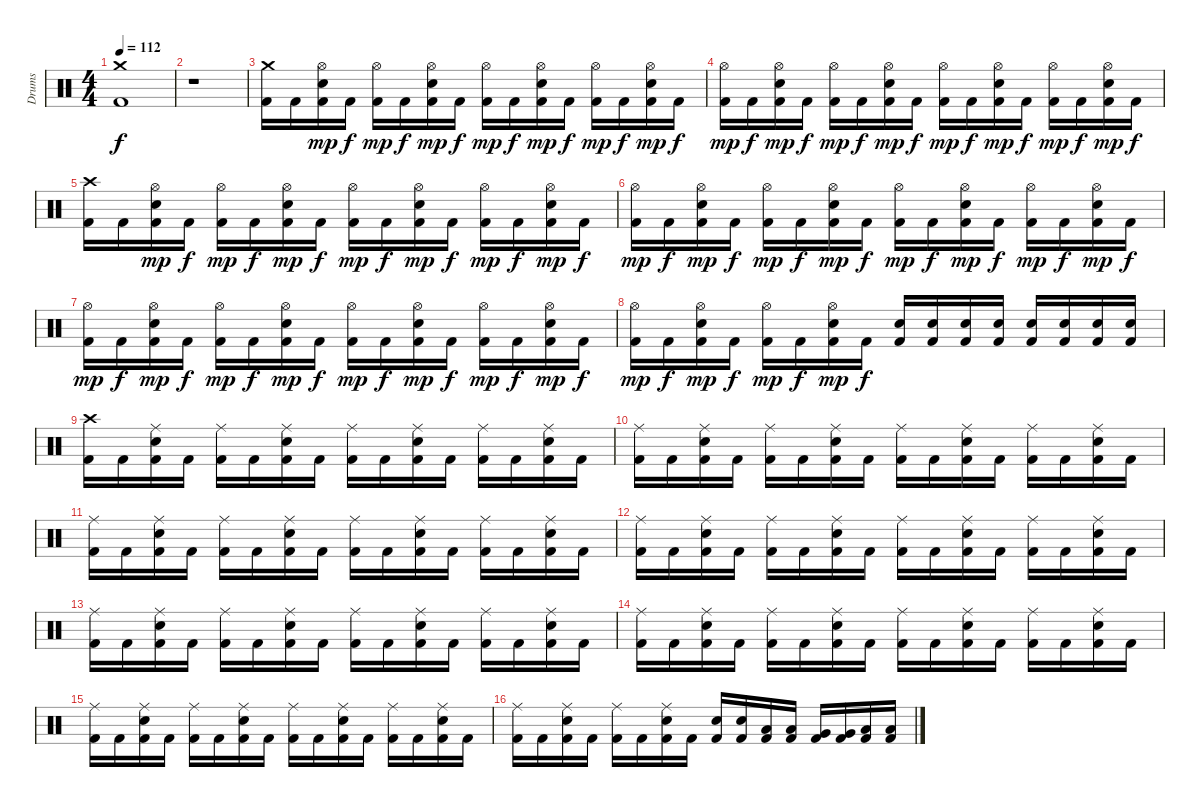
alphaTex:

\track ("Drums" "Drums") {instrument percussion}
\staff {score}
\articulation defaults
\ts (4 4)
\tempo 112
\clef neutral
\ks c
("Crash medium (hit)" "Kick (hit) 2").1{dy f} |
r.1 |
("Crash medium (hit)" "Kick (hit) 2").16 "Kick (hit) 2".16 ("Hi-Hat (open)" "Electric Snare (hit)" "Kick (hit) 2").16{dy mp} "Kick (hit) 2".16{dy f} ("Hi-Hat (open)" "Kick (hit) 2").16{dy mp} "Kick (hit) 2".16{dy f} ("Hi-Hat (open)" "Electric Snare (hit)" "Kick (hit) 2").16{dy mp} "Kick (hit) 2".16{dy f} ("Hi-Hat (open)" "Kick (hit) 2").16{dy mp} "Kick (hit) 2".16{dy f} ("Hi-Hat (open)" "Electric Snare (hit)" "Kick (hit) 2").16{dy mp} "Kick (hit) 2".16{dy f} ("Hi-Hat (open)" "Kick (hit) 2").16{dy mp} "Kick (hit) 2".16{dy f} ("Hi-Hat (open)" "Electric Snare (hit)" "Kick (hit) 2").16{dy mp} "Kick (hit) 2".16{dy f} |
("Hi-Hat (open)" "Kick (hit) 2").16{dy mp} "Kick (hit) 2".16{dy f} ("Hi-Hat (open)" "Electric Snare (hit)" "Kick (hit) 2").16{dy mp} "Kick (hit) 2".16{dy f} ("Hi-Hat (open)" "Kick (hit) 2").16{dy mp} "Kick (hit) 2".16{dy f} ("Hi-Hat (open)" "Electric Snare (hit)" "Kick (hit) 2").16{dy mp} "Kick (hit) 2".16{dy f} ("Hi-Hat (open)" "Kick (hit) 2").16{dy mp} "Kick (hit) 2".16{dy f} ("Hi-Hat (open)" "Electric Snare (hit)" "Kick (hit) 2").16{dy mp} "Kick (hit) 2".16{dy f} ("Hi-Hat (open)" "Kick (hit) 2").16{dy mp} "Kick (hit) 2".16{dy f} ("Hi-Hat (open)" "Electric Snare (hit)" "Kick (hit) 2").16{dy mp} "Kick (hit) 2".16{dy f} |
("Crash high (hit)" "Kick (hit) 2").16 "Kick (hit) 2".16 ("Hi-Hat (open)" "Electric Snare (hit)" "Kick (hit) 2").16{dy mp} "Kick (hit) 2".16{dy f} ("Hi-Hat (open)" "Kick (hit) 2").16{dy mp} "Kick (hit) 2".16{dy f} ("Hi-Hat (open)" "Electric Snare (hit)" "Kick (hit) 2").16{dy mp} "Kick (hit) 2".16{dy f} ("Hi-Hat (open)" "Kick (hit) 2").16{dy mp} "Kick (hit) 2".16{dy f} ("Hi-Hat (open)" "Electric Snare (hit)" "Kick (hit) 2").16{dy mp} "Kick (hit) 2".16{dy f} ("Hi-Hat (open)" "Kick (hit) 2").16{dy mp} "Kick (hit) 2".16{dy f} ("Hi-Hat (open)" "Electric Snare (hit)" "Kick (hit) 2").16{dy mp} "Kick (hit) 2".16{dy f} |
("Hi-Hat (open)" "Kick (hit) 2").16{dy mp} "Kick (hit) 2".16{dy f} ("Hi-Hat (open)" "Electric Snare (hit)" "Kick (hit) 2").16{dy mp} "Kick (hit) 2".16{dy f} ("Hi-Hat (open)" "Kick (hit) 2").16{dy mp} "Kick (hit) 2".16{dy f} ("Hi-Hat (open)" "Electric Snare (hit)" "Kick (hit) 2").16{dy mp} "Kick (hit) 2".16{dy f} ("Hi-Hat (open)" "Kick (hit) 2").16{dy mp} "Kick (hit) 2".16{dy f} ("Hi-Hat (open)" "Electric Snare (hit)" "Kick (hit) 2").16{dy mp} "Kick (hit) 2".16{dy f} ("Hi-Hat (open)" "Kick (hit) 2").16{dy mp} "Kick (hit) 2".16{dy f} ("Hi-Hat (open)" "Electric Snare (hit)" "Kick (hit) 2").16{dy mp} "Kick (hit) 2".16{dy f} |
("Hi-Hat (open)" "Kick (hit) 2").16{dy mp} "Kick (hit) 2".16{dy f} ("Hi-Hat (open)" "Electric Snare (hit)" "Kick (hit) 2").16{dy mp} "Kick (hit) 2".16{dy f} ("Hi-Hat (open)" "Kick (hit) 2").16{dy mp} "Kick (hit) 2".16{dy f} ("Hi-Hat (open)" "Electric Snare (hit)" "Kick (hit) 2").16{dy mp} "Kick (hit) 2".16{dy f} ("Hi-Hat (open)" "Kick (hit) 2").16{dy mp} "Kick (hit) 2".16{dy f} ("Hi-Hat (open)" "Electric Snare (hit)" "Kick (hit) 2").16{dy mp} "Kick (hit) 2".16{dy f} ("Hi-Hat (open)" "Kick (hit) 2").16{dy mp} "Kick (hit) 2".16{dy f} ("Hi-Hat (open)" "Electric Snare (hit)" "Kick (hit) 2").16{dy mp} "Kick (hit) 2".16{dy f} |
("Hi-Hat (open)" "Kick (hit) 2").16{dy mp} "Kick (hit) 2".16{dy f} ("Hi-Hat (open)" "Electric Snare (hit)" "Kick (hit) 2").16{dy mp} "Kick (hit) 2".16{dy f} ("Hi-Hat (open)" "Kick (hit) 2").16{dy mp} "Kick (hit) 2".16{dy f} ("Hi-Hat (open)" "Electric Snare (hit)" "Kick (hit) 2").16{dy mp} "Kick (hit) 2".16{dy f} ("Electric Snare (hit)" "Kick (hit) 2").16 ("Electric Snare (hit)" "Kick (hit) 2").16 ("Electric Snare (hit)" "Kick (hit) 2").16 ("Electric Snare (hit)" "Kick (hit) 2").16 ("Electric Snare (hit)" "Kick (hit) 2").16 ("Electric Snare (hit)" "Kick (hit) 2").16 ("Electric Snare (hit)" "Kick (hit) 2").16 ("Electric Snare (hit)" "Kick (hit) 2").16 |
("Crash high (hit)" "Kick (hit) 2").16 "Kick (hit) 2".16 ("Ride (middle)" "Electric Snare (hit)" "Kick (hit) 2").16 "Kick (hit) 2".16 ("Ride (middle)" "Kick (hit) 2").16 "Kick (hit) 2".16 ("Ride (middle)" "Electric Snare (hit)" "Kick (hit) 2").16 "Kick (hit) 2".16 ("Ride (middle)" "Kick (hit) 2").16 "Kick (hit) 2".16 ("Ride (middle)" "Electric Snare (hit)" "Kick (hit) 2").16 "Kick (hit) 2".16 ("Ride (middle)" "Kick (hit) 2").16 "Kick (hit) 2".16 ("Ride (middle)" "Electric Snare (hit)" "Kick (hit) 2").16 "Kick (hit) 2".16 |
("Ride (middle)" "Kick (hit) 2").16 "Kick (hit) 2".16 ("Ride (middle)" "Electric Snare (hit)" "Kick (hit) 2").16 "Kick (hit) 2".16 ("Ride (middle)" "Kick (hit) 2").16 "Kick (hit) 2".16 ("Ride (middle)" "Electric Snare (hit)" "Kick (hit) 2").16 "Kick (hit) 2".16 ("Ride (middle)" "Kick (hit) 2").16 "Kick (hit) 2".16 ("Ride (middle)" "Electric Snare (hit)" "Kick (hit) 2").16 "Kick (hit) 2".16 ("Ride (middle)" "Kick (hit) 2").16 "Kick (hit) 2".16 ("Ride (middle)" "Electric Snare (hit)" "Kick (hit) 2").16 "Kick (hit) 2".16 |
("Ride (middle)" "Kick (hit) 2").16 "Kick (hit) 2".16 ("Ride (middle)" "Electric Snare (hit)" "Kick (hit) 2").16 "Kick (hit) 2".16 ("Ride (middle)" "Kick (hit) 2").16 "Kick (hit) 2".16 ("Ride (middle)" "Electric Snare (hit)" "Kick (hit) 2").16 "Kick (hit) 2".16 ("Ride (middle)" "Kick (hit) 2").16 "Kick (hit) 2".16 ("Ride (middle)" "Electric Snare (hit)" "Kick (hit) 2").16 "Kick (hit) 2".16 ("Ride (middle)" "Kick (hit) 2").16 "Kick (hit) 2".16 ("Ride (middle)" "Electric Snare (hit)" "Kick (hit) 2").16 "Kick (hit) 2".16 |
("Ride (middle)" "Kick (hit) 2").16 "Kick (hit) 2".16 ("Ride (middle)" "Electric Snare (hit)" "Kick (hit) 2").16 "Kick (hit) 2".16 ("Ride (middle)" "Kick (hit) 2").16 "Kick (hit) 2".16 ("Ride (middle)" "Electric Snare (hit)" "Kick (hit) 2").16 "Kick (hit) 2".16 ("Ride (middle)" "Kick (hit) 2").16 "Kick (hit) 2".16 ("Ride (middle)" "Electric Snare (hit)" "Kick (hit) 2").16 "Kick (hit) 2".16 ("Ride (middle)" "Kick (hit) 2").16 "Kick (hit) 2".16 ("Ride (middle)" "Electric Snare (hit)" "Kick (hit) 2").16 "Kick (hit) 2".16 |
("Ride (middle)" "Kick (hit) 2").16 "Kick (hit) 2".16 ("Ride (middle)" "Electric Snare (hit)" "Kick (hit) 2").16 "Kick (hit) 2".16 ("Ride (middle)" "Kick (hit) 2").16 "Kick (hit) 2".16 ("Ride (middle)" "Electric Snare (hit)" "Kick (hit) 2").16 "Kick (hit) 2".16 ("Ride (middle)" "Kick (hit) 2").16 "Kick (hit) 2".16 ("Ride (middle)" "Electric Snare (hit)" "Kick (hit) 2").16 "Kick (hit) 2".16 ("Ride (middle)" "Kick (hit) 2").16 "Kick (hit) 2".16 ("Ride (middle)" "Electric Snare (hit)" "Kick (hit) 2").16 "Kick (hit) 2".16 |
("Ride (middle)" "Kick (hit) 2").16 "Kick (hit) 2".16 ("Ride (middle)" "Electric Snare (hit)" "Kick (hit) 2").16 "Kick (hit) 2".16 ("Ride (middle)" "Kick (hit) 2").16 "Kick (hit) 2".16 ("Ride (middle)" "Electric Snare (hit)" "Kick (hit) 2").16 "Kick (hit) 2".16 ("Ride (middle)" "Kick (hit) 2").16 "Kick (hit) 2".16 ("Ride (middle)" "Electric Snare (hit)" "Kick (hit) 2").16 "Kick (hit) 2".16 ("Ride (middle)" "Kick (hit) 2").16 "Kick (hit) 2".16 ("Ride (middle)" "Electric Snare (hit)" "Kick (hit) 2").16 "Kick (hit) 2".16 |
("Ride (middle)" "Kick (hit) 2").16 "Kick (hit) 2".16 ("Ride (middle)" "Electric Snare (hit)" "Kick (hit) 2").16 "Kick (hit) 2".16 ("Ride (middle)" "Kick (hit) 2").16 "Kick (hit) 2".16 ("Ride (middle)" "Electric Snare (hit)" "Kick (hit) 2").16 "Kick (hit) 2".16 ("Ride (middle)" "Kick (hit) 2").16 "Kick (hit) 2".16 ("Ride (middle)" "Electric Snare (hit)" "Kick (hit) 2").16 "Kick (hit) 2".16 ("Ride (middle)" "Kick (hit) 2").16 "Kick (hit) 2".16 ("Ride (middle)" "Electric Snare (hit)" "Kick (hit) 2").16 "Kick (hit) 2".16 |
("Ride (middle)" "Kick (hit) 2").16 "Kick (hit) 2".16 ("Ride (middle)" "Electric Snare (hit)" "Kick (hit) 2").16 "Kick (hit) 2".16 ("Ride (middle)" "Kick (hit) 2").16 "Kick (hit) 2".16 ("Ride (middle)" "Electric Snare (hit)" "Kick (hit) 2").16 "Kick (hit) 2".16 ("Electric Snare (hit)" "Kick (hit) 2").16 ("Electric Snare (hit)" "Kick (hit) 2").16 ("Low Tom (hit)" "Kick (hit) 2").16 ("Low Tom (hit)" "Kick (hit) 2").16 ("Very Low Tom (hit)" "Kick (hit) 2").16 ("Very Low Tom (hit)" "Kick (hit) 2").16 ("Low Floor Tom (hit)" "Kick (hit) 2").16 ("Low Floor Tom (hit)" "Kick (hit) 2").16
